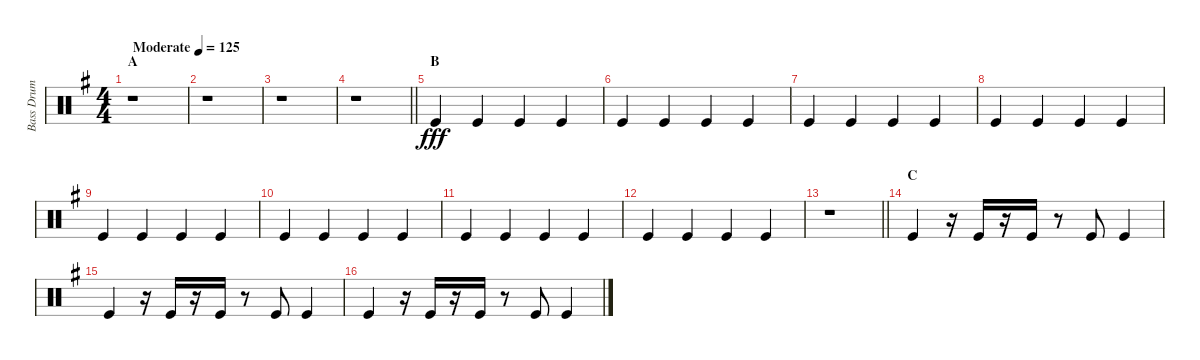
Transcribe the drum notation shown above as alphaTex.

\track ("Bass Drum" "Bass Drum") {instrument percussion}
\staff {score}
\articulation defaults
\ts (4 4)
\section ("" "A")
\tempo (125 "Moderate")
\clef neutral
\ks g
r.1{dy fff} |
r.1 |
r.1 |
\barLineRight lightlight
r.1 |
\section ("" "B")
"Kick (hit)".4 "Kick (hit)".4 "Kick (hit)".4 "Kick (hit)".4 |
"Kick (hit)".4 "Kick (hit)".4 "Kick (hit)".4 "Kick (hit)".4 |
"Kick (hit)".4 "Kick (hit)".4 "Kick (hit)".4 "Kick (hit)".4 |
"Kick (hit)".4 "Kick (hit)".4 "Kick (hit)".4 "Kick (hit)".4 |
"Kick (hit)".4 "Kick (hit)".4 "Kick (hit)".4 "Kick (hit)".4 |
"Kick (hit)".4 "Kick (hit)".4 "Kick (hit)".4 "Kick (hit)".4 |
"Kick (hit)".4 "Kick (hit)".4 "Kick (hit)".4 "Kick (hit)".4 |
"Kick (hit)".4 "Kick (hit)".4 "Kick (hit)".4 "Kick (hit)".4 |
\barLineRight lightlight
r.1 |
\section ("" "C")
"Kick (hit)".4 r.16 "Kick (hit)".16 r.16 "Kick (hit)".16 r.8 "Kick (hit)".8 "Kick (hit)".4 |
"Kick (hit)".4 r.16 "Kick (hit)".16 r.16 "Kick (hit)".16 r.8 "Kick (hit)".8 "Kick (hit)".4 |
"Kick (hit)".4 r.16 "Kick (hit)".16 r.16 "Kick (hit)".16 r.8 "Kick (hit)".8 "Kick (hit)".4
